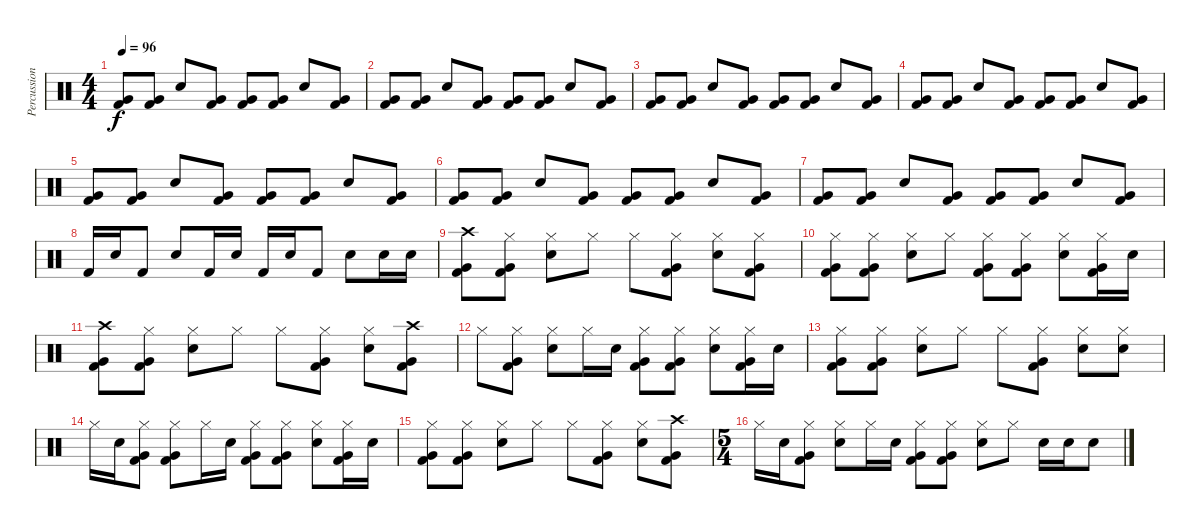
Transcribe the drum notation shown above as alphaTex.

\track ("Percussion" "Percussion") {instrument percussion}
\staff {score}
\articulation defaults
\ts (4 4)
\tempo 96
\clef neutral
\ks c
("Very Low Tom (hit)" "Kick (hit) 2").8{dy f} ("Very Low Tom (hit)" "Kick (hit) 2").8 "Electric Snare (hit)".8 ("Very Low Tom (hit)" "Kick (hit) 2").8 ("Very Low Tom (hit)" "Kick (hit) 2").8 ("Very Low Tom (hit)" "Kick (hit) 2").8 "Electric Snare (hit)".8 ("Very Low Tom (hit)" "Kick (hit) 2").8 |
("Very Low Tom (hit)" "Kick (hit) 2").8 ("Very Low Tom (hit)" "Kick (hit) 2").8 "Electric Snare (hit)".8 ("Very Low Tom (hit)" "Kick (hit) 2").8 ("Very Low Tom (hit)" "Kick (hit) 2").8 ("Very Low Tom (hit)" "Kick (hit) 2").8 "Electric Snare (hit)".8 ("Very Low Tom (hit)" "Kick (hit) 2").8 |
("Very Low Tom (hit)" "Kick (hit) 2").8 ("Very Low Tom (hit)" "Kick (hit) 2").8 "Electric Snare (hit)".8 ("Very Low Tom (hit)" "Kick (hit) 2").8 ("Very Low Tom (hit)" "Kick (hit) 2").8 ("Very Low Tom (hit)" "Kick (hit) 2").8 "Electric Snare (hit)".8 ("Very Low Tom (hit)" "Kick (hit) 2").8 |
("Very Low Tom (hit)" "Kick (hit) 2").8 ("Very Low Tom (hit)" "Kick (hit) 2").8 "Electric Snare (hit)".8 ("Very Low Tom (hit)" "Kick (hit) 2").8 ("Very Low Tom (hit)" "Kick (hit) 2").8 ("Very Low Tom (hit)" "Kick (hit) 2").8 "Electric Snare (hit)".8 ("Very Low Tom (hit)" "Kick (hit) 2").8 |
("Very Low Tom (hit)" "Kick (hit) 2").8 ("Very Low Tom (hit)" "Kick (hit) 2").8 "Electric Snare (hit)".8 ("Very Low Tom (hit)" "Kick (hit) 2").8 ("Very Low Tom (hit)" "Kick (hit) 2").8 ("Very Low Tom (hit)" "Kick (hit) 2").8 "Electric Snare (hit)".8 ("Very Low Tom (hit)" "Kick (hit) 2").8 |
("Very Low Tom (hit)" "Kick (hit) 2").8 ("Very Low Tom (hit)" "Kick (hit) 2").8 "Electric Snare (hit)".8 ("Very Low Tom (hit)" "Kick (hit) 2").8 ("Very Low Tom (hit)" "Kick (hit) 2").8 ("Very Low Tom (hit)" "Kick (hit) 2").8 "Electric Snare (hit)".8 ("Very Low Tom (hit)" "Kick (hit) 2").8 |
("Very Low Tom (hit)" "Kick (hit) 2").8 ("Very Low Tom (hit)" "Kick (hit) 2").8 "Electric Snare (hit)".8 ("Very Low Tom (hit)" "Kick (hit) 2").8 ("Very Low Tom (hit)" "Kick (hit) 2").8 ("Very Low Tom (hit)" "Kick (hit) 2").8 "Electric Snare (hit)".8 ("Very Low Tom (hit)" "Kick (hit) 2").8 |
"Kick (hit) 2".16 "Electric Snare (hit)".16 "Kick (hit) 2".8 "Electric Snare (hit)".8 "Kick (hit) 2".16 "Electric Snare (hit)".16 "Kick (hit) 2".16 "Electric Snare (hit)".16 "Kick (hit) 2".8 "Electric Snare (hit)".8 "Electric Snare (hit)".16 "Electric Snare (hit)".16 |
("Crash high (hit)" "Very Low Tom (hit)" "Kick (hit) 2").8 ("Hi-Hat (closed)" "Very Low Tom (hit)" "Kick (hit) 2").8 ("Hi-Hat (closed)" "Electric Snare (hit)").8 "Hi-Hat (closed)".8 "Hi-Hat (closed)".8 ("Hi-Hat (closed)" "Very Low Tom (hit)" "Kick (hit) 2").8 ("Hi-Hat (closed)" "Electric Snare (hit)").8 ("Hi-Hat (closed)" "Very Low Tom (hit)" "Kick (hit) 2").8 |
("Hi-Hat (closed)" "Very Low Tom (hit)" "Kick (hit) 2").8 ("Hi-Hat (closed)" "Very Low Tom (hit)" "Kick (hit) 2").8 ("Hi-Hat (closed)" "Electric Snare (hit)").8 "Hi-Hat (closed)".8 ("Hi-Hat (closed)" "Very Low Tom (hit)" "Kick (hit) 2").8 ("Hi-Hat (closed)" "Very Low Tom (hit)" "Kick (hit) 2").8 ("Hi-Hat (closed)" "Electric Snare (hit)").8 ("Hi-Hat (closed)" "Very Low Tom (hit)" "Kick (hit) 2").16 "Electric Snare (hit)".16 |
("Crash high (hit)" "Very Low Tom (hit)" "Kick (hit) 2").8 ("Hi-Hat (closed)" "Very Low Tom (hit)" "Kick (hit) 2").8 ("Hi-Hat (closed)" "Electric Snare (hit)").8 "Hi-Hat (closed)".8 "Hi-Hat (closed)".8 ("Hi-Hat (closed)" "Very Low Tom (hit)" "Kick (hit) 2").8 ("Hi-Hat (closed)" "Electric Snare (hit)").8 ("Crash high (hit)" "Very Low Tom (hit)" "Kick (hit) 2").8 |
"Hi-Hat (closed)".8 ("Hi-Hat (closed)" "Very Low Tom (hit)" "Kick (hit) 2").8 ("Hi-Hat (closed)" "Electric Snare (hit)").8 "Hi-Hat (closed)".16 "Electric Snare (hit)".16 ("Hi-Hat (closed)" "Very Low Tom (hit)" "Kick (hit) 2").8 ("Hi-Hat (closed)" "Very Low Tom (hit)" "Kick (hit) 2").8 ("Hi-Hat (closed)" "Electric Snare (hit)").8 ("Hi-Hat (closed)" "Very Low Tom (hit)" "Kick (hit) 2").16 "Electric Snare (hit)".16 |
("Hi-Hat (closed)" "Very Low Tom (hit)" "Kick (hit) 2").8 ("Hi-Hat (closed)" "Very Low Tom (hit)" "Kick (hit) 2").8 ("Hi-Hat (closed)" "Electric Snare (hit)").8 "Hi-Hat (closed)".8 "Hi-Hat (closed)".8 ("Hi-Hat (closed)" "Very Low Tom (hit)" "Kick (hit) 2").8 ("Hi-Hat (closed)" "Electric Snare (hit)").8 ("Hi-Hat (closed)" "Electric Snare (hit)").8 |
"Hi-Hat (closed)".16 "Electric Snare (hit)".16 ("Hi-Hat (closed)" "Very Low Tom (hit)" "Kick (hit) 2").8 ("Hi-Hat (closed)" "Very Low Tom (hit)" "Kick (hit) 2").8 "Hi-Hat (closed)".16 "Electric Snare (hit)".16 ("Hi-Hat (closed)" "Very Low Tom (hit)" "Kick (hit) 2").8 ("Hi-Hat (closed)" "Very Low Tom (hit)" "Kick (hit) 2").8 ("Hi-Hat (closed)" "Electric Snare (hit)").8 ("Hi-Hat (closed)" "Very Low Tom (hit)" "Kick (hit) 2").16 "Electric Snare (hit)".16 |
("Hi-Hat (closed)" "Very Low Tom (hit)" "Kick (hit) 2").8 ("Hi-Hat (closed)" "Very Low Tom (hit)" "Kick (hit) 2").8 ("Hi-Hat (closed)" "Electric Snare (hit)").8 "Hi-Hat (closed)".8 "Hi-Hat (closed)".8 ("Hi-Hat (closed)" "Very Low Tom (hit)" "Kick (hit) 2").8 ("Hi-Hat (closed)" "Electric Snare (hit)").8 ("Crash high (hit)" "Very Low Tom (hit)" "Kick (hit) 2").8 |
\ts (5 4)
"Hi-Hat (closed)".16 "Electric Snare (hit)".16 ("Hi-Hat (closed)" "Very Low Tom (hit)" "Kick (hit) 2").8 ("Hi-Hat (closed)" "Electric Snare (hit)").8 "Hi-Hat (closed)".16 "Electric Snare (hit)".16 ("Hi-Hat (closed)" "Very Low Tom (hit)" "Kick (hit) 2").8 ("Hi-Hat (closed)" "Very Low Tom (hit)" "Kick (hit) 2").8 ("Hi-Hat (closed)" "Electric Snare (hit)").8 "Hi-Hat (closed)".8 "Electric Snare (hit)".16 "Electric Snare (hit)".16 "Electric Snare (hit)".8
